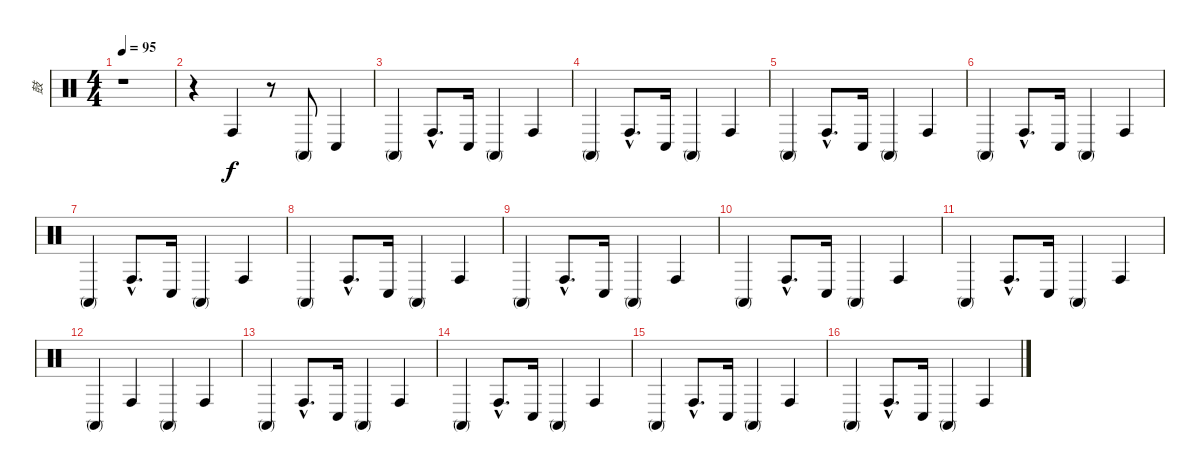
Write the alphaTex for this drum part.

\track ("鼓" "鼓") {instrument percussion}
\staff {score}
\articulation defaults
\ts (4 4)
\tempo 95
\clef neutral
\ks c
r.1{dy f} |
r.4 "Conga high (hit)".4 r.8 "Conga high (mute)".8 "Conga low (hit)".4 |
"Conga high (mute)".4 "Conga high (hit)"{hac}.8{d} "Conga low (hit)".16 "Conga high (mute)".4 "Conga high (hit)".4 |
"Conga high (mute)".4 "Conga high (hit)"{hac}.8{d} "Conga low (hit)".16 "Conga high (mute)".4 "Conga high (hit)".4 |
"Conga high (mute)".4 "Conga high (hit)"{hac}.8{d} "Conga low (hit)".16 "Conga high (mute)".4 "Conga high (hit)".4 |
"Conga high (mute)".4 "Conga high (hit)"{hac}.8{d} "Conga low (hit)".16 "Conga high (mute)".4 "Conga high (hit)".4 |
"Conga high (mute)".4 "Conga high (hit)"{hac}.8{d} "Conga low (hit)".16 "Conga high (mute)".4 "Conga high (hit)".4 |
"Conga high (mute)".4 "Conga high (hit)"{hac}.8{d} "Conga low (hit)".16 "Conga high (mute)".4 "Conga high (hit)".4 |
"Conga high (mute)".4 "Conga high (hit)"{hac}.8{d} "Conga low (hit)".16 "Conga high (mute)".4 "Conga high (hit)".4 |
"Conga high (mute)".4 "Conga high (hit)"{hac}.8{d} "Conga low (hit)".16 "Conga high (mute)".4 "Conga high (hit)".4 |
"Conga high (mute)".4 "Conga high (hit)"{hac}.8{d} "Conga low (hit)".16 "Conga high (mute)".4 "Conga high (hit)".4 |
"Conga high (mute)".4 "Conga high (hit)".4 "Conga high (mute)".4 "Conga high (hit)".4 |
"Conga high (mute)".4 "Conga high (hit)"{hac}.8{d} "Conga low (hit)".16 "Conga high (mute)".4 "Conga high (hit)".4 |
"Conga high (mute)".4 "Conga high (hit)"{hac}.8{d} "Conga low (hit)".16 "Conga high (mute)".4 "Conga high (hit)".4 |
"Conga high (mute)".4 "Conga high (hit)"{hac}.8{d} "Conga low (hit)".16 "Conga high (mute)".4 "Conga high (hit)".4 |
"Conga high (mute)".4 "Conga high (hit)"{hac}.8{d} "Conga low (hit)".16 "Conga high (mute)".4 "Conga high (hit)".4
